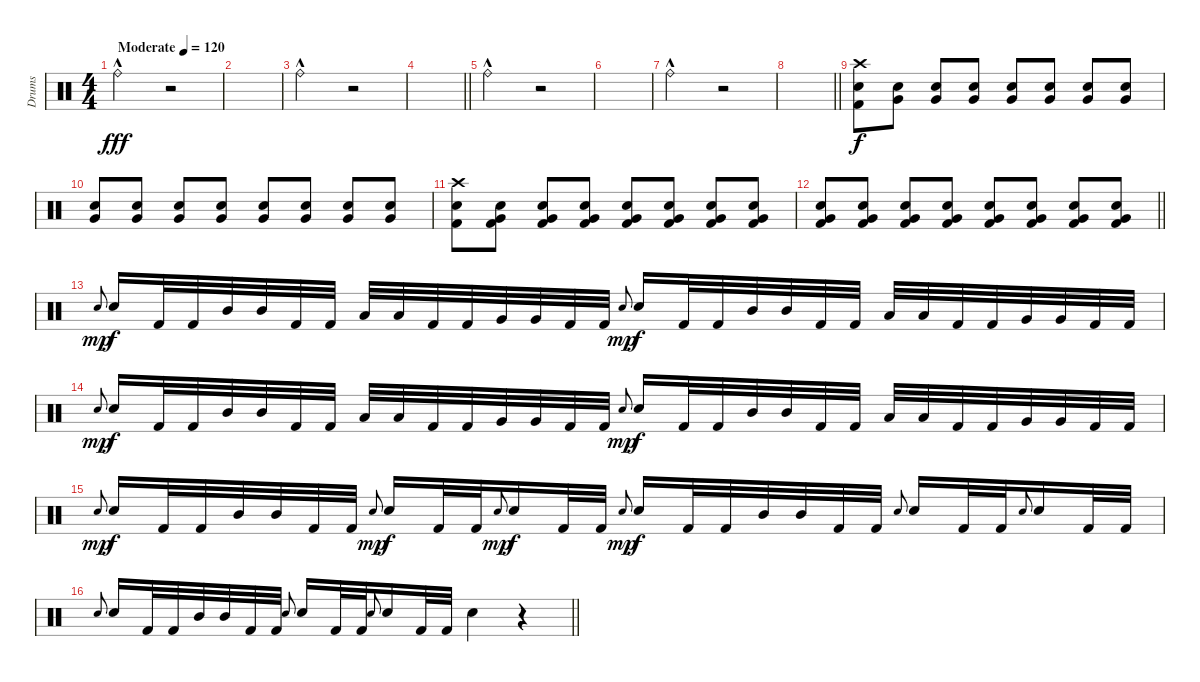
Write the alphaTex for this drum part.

\track ("Drums" "Drums") {instrument percussion}
\staff {score}
\articulation defaults
\ts (4 4)
\tempo (120 "Moderate")
\clef neutral
\ks c "Ride (bell)"{hac}.2{dy fff}
r.2 |
|
"Ride (bell)"{hac}.2 r.2 |
\barLineRight lightlight
|
"Ride (bell)"{hac}.2 r.2 |
|
"Ride (bell)"{hac}.2 r.2 |
\barLineRight lightlight
|
("Crash high (hit)" "Electric Snare (hit)" "Kick (hit) 2").8{dy f} ("Electric Snare (hit)" "Very Low Tom (hit)").8 ("Electric Snare (hit)" "Very Low Tom (hit)").8 ("Electric Snare (hit)" "Very Low Tom (hit)").8 ("Electric Snare (hit)" "Very Low Tom (hit)").8 ("Electric Snare (hit)" "Very Low Tom (hit)").8 ("Electric Snare (hit)" "Very Low Tom (hit)").8 ("Electric Snare (hit)" "Very Low Tom (hit)").8 |
("Electric Snare (hit)" "Very Low Tom (hit)").8 ("Electric Snare (hit)" "Very Low Tom (hit)").8 ("Electric Snare (hit)" "Very Low Tom (hit)").8 ("Electric Snare (hit)" "Very Low Tom (hit)").8 ("Electric Snare (hit)" "Very Low Tom (hit)").8 ("Electric Snare (hit)" "Very Low Tom (hit)").8 ("Electric Snare (hit)" "Very Low Tom (hit)").8 ("Electric Snare (hit)" "Very Low Tom (hit)").8 |
("Crash high (hit)" "Electric Snare (hit)" "Kick (hit) 2").8 ("Electric Snare (hit)" "Very Low Tom (hit)" "Kick (hit) 2").8 ("Electric Snare (hit)" "Very Low Tom (hit)" "Kick (hit) 2").8 ("Electric Snare (hit)" "Very Low Tom (hit)" "Kick (hit) 2").8 ("Electric Snare (hit)" "Very Low Tom (hit)" "Kick (hit) 2").8 ("Electric Snare (hit)" "Very Low Tom (hit)" "Kick (hit) 2").8 ("Electric Snare (hit)" "Very Low Tom (hit)" "Kick (hit) 2").8 ("Electric Snare (hit)" "Very Low Tom (hit)" "Kick (hit) 2").8 |
\barLineRight lightlight
("Electric Snare (hit)" "Very Low Tom (hit)" "Kick (hit) 2").8 ("Electric Snare (hit)" "Very Low Tom (hit)" "Kick (hit) 2").8 ("Electric Snare (hit)" "Very Low Tom (hit)" "Kick (hit) 2").8 ("Electric Snare (hit)" "Very Low Tom (hit)" "Kick (hit) 2").8 ("Electric Snare (hit)" "Very Low Tom (hit)" "Kick (hit) 2").8 ("Electric Snare (hit)" "Very Low Tom (hit)" "Kick (hit) 2").8 ("Electric Snare (hit)" "Very Low Tom (hit)" "Kick (hit) 2").8 ("Electric Snare (hit)" "Very Low Tom (hit)" "Kick (hit) 2").8 |
"Electric Snare (hit)".8{gr onbeat dy mp} "Electric Snare (hit)".16{dy f} "Kick (hit) 2".32 "Kick (hit) 2".32 "Mid Tom (hit)".32 "Mid Tom (hit)".32 "Kick (hit) 2".32 "Kick (hit) 2".32 "Low Tom (hit)".32 "Low Tom (hit)".32 "Kick (hit) 2".32 "Kick (hit) 2".32 "Very Low Tom (hit)".32 "Very Low Tom (hit)".32 "Kick (hit) 2".32 "Kick (hit) 2".32 "Electric Snare (hit)".8{gr onbeat dy mp} "Electric Snare (hit)".16{dy f} "Kick (hit) 2".32 "Kick (hit) 2".32 "Mid Tom (hit)".32 "Mid Tom (hit)".32 "Kick (hit) 2".32 "Kick (hit) 2".32 "Low Tom (hit)".32 "Low Tom (hit)".32 "Kick (hit) 2".32 "Kick (hit) 2".32 "Very Low Tom (hit)".32 "Very Low Tom (hit)".32 "Kick (hit) 2".32 "Kick (hit) 2".32 |
"Electric Snare (hit)".8{gr onbeat dy mp} "Electric Snare (hit)".16{dy f} "Kick (hit) 2".32 "Kick (hit) 2".32 "Mid Tom (hit)".32 "Mid Tom (hit)".32 "Kick (hit) 2".32 "Kick (hit) 2".32 "Low Tom (hit)".32 "Low Tom (hit)".32 "Kick (hit) 2".32 "Kick (hit) 2".32 "Very Low Tom (hit)".32 "Very Low Tom (hit)".32 "Kick (hit) 2".32 "Kick (hit) 2".32 "Electric Snare (hit)".8{gr onbeat dy mp} "Electric Snare (hit)".16{dy f} "Kick (hit) 2".32 "Kick (hit) 2".32 "Mid Tom (hit)".32 "Mid Tom (hit)".32 "Kick (hit) 2".32 "Kick (hit) 2".32 "Low Tom (hit)".32 "Low Tom (hit)".32 "Kick (hit) 2".32 "Kick (hit) 2".32 "Very Low Tom (hit)".32 "Very Low Tom (hit)".32 "Kick (hit) 2".32 "Kick (hit) 2".32 |
"Electric Snare (hit)".8{gr onbeat dy mp} "Electric Snare (hit)".16{dy f} "Kick (hit) 2".32 "Kick (hit) 2".32 "Mid Tom (hit)".32 "Mid Tom (hit)".32 "Kick (hit) 2".32 "Kick (hit) 2".32 "Electric Snare (hit)".8{gr onbeat dy mp} "Electric Snare (hit)".16{dy f} "Kick (hit) 2".32 "Kick (hit) 2".32 "Electric Snare (hit)".8{gr onbeat dy mp} "Electric Snare (hit)".16{dy f} "Kick (hit) 2".32 "Kick (hit) 2".32 "Electric Snare (hit)".8{gr onbeat dy mp} "Electric Snare (hit)".16{dy f} "Kick (hit) 2".32 "Kick (hit) 2".32 "Mid Tom (hit)".32 "Mid Tom (hit)".32 "Kick (hit) 2".32 "Kick (hit) 2".32 "Electric Snare (hit)".8{gr onbeat} "Electric Snare (hit)".16 "Kick (hit) 2".32 "Kick (hit) 2".32 "Electric Snare (hit)".8{gr onbeat} "Electric Snare (hit)".16 "Kick (hit) 2".32 "Kick (hit) 2".32 |
\barLineRight lightlight "Electric Snare (hit)".8{gr onbeat} "Electric Snare (hit)".16 "Kick (hit) 2".32 "Kick (hit) 2".32 "Mid Tom (hit)".32 "Mid Tom (hit)".32 "Kick (hit) 2".32 "Kick (hit) 2".32 "Electric Snare (hit)".8{gr onbeat} "Electric Snare (hit)".16 "Kick (hit) 2".32 "Kick (hit) 2".32 "Electric Snare (hit)".8{gr onbeat} "Electric Snare (hit)".16 "Kick (hit) 2".32 "Kick (hit) 2".32 "Electric Snare (hit)".4
r.4
